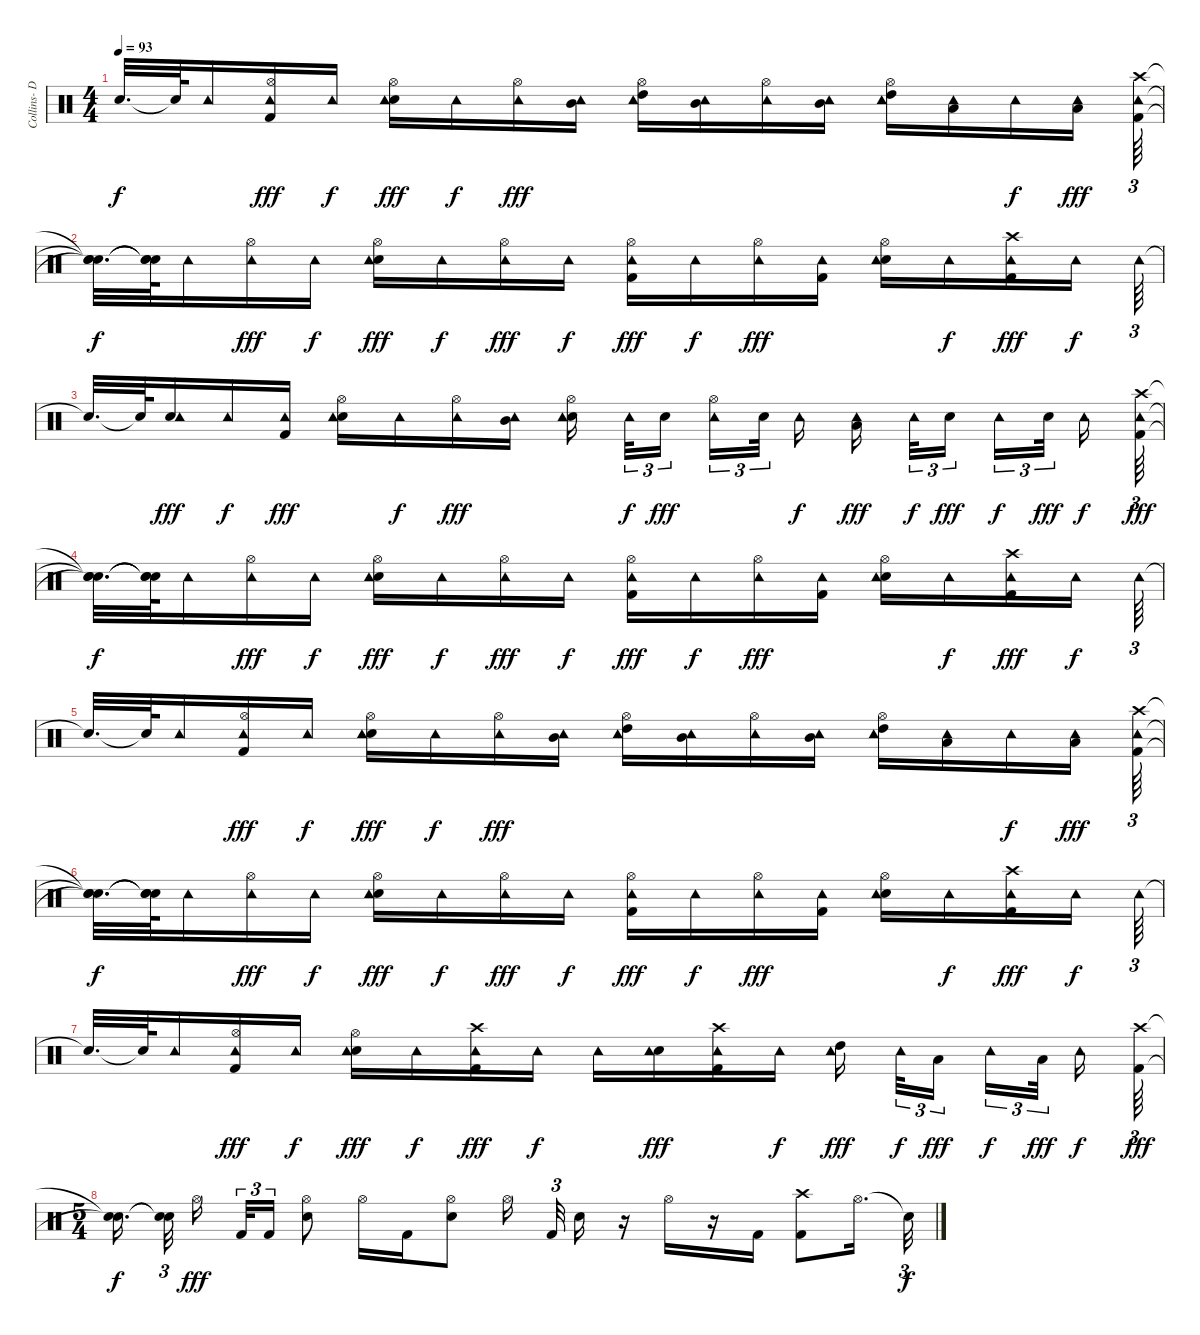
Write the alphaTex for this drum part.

\track ("Collins- Drums" "Collins- D") {instrument percussion}
\staff {score}
\articulation defaults
\ts (4 4)
\tempo 93
\clef neutral
\ks c "Snare (hit)"{t}.32{d dy f} "Snare (hit)"{t}.64 "Tambourine (hit)".16
("Hi-Hat (open)" "Kick (hit) 2" "Tambourine (hit)").16{dy fff} "Tambourine (hit)".16{dy f} ("Hi-Hat (open)" "Electric Snare (hit)" "Tambourine (hit)").16{dy fff} "Tambourine (hit)".16{dy f} ("Hi-Hat (open)" "Tambourine (hit)").16{dy fff} ("Mid Tom (hit)" "Tambourine (hit)").16 ("High Tom (hit)" "Hi-Hat (open)" "Tambourine (hit)").16 ("Mid Tom (hit)" "Tambourine (hit)").16 ("Hi-Hat (open)" "Tambourine (hit)").16 ("Mid Tom (hit)" "Tambourine (hit)").16 ("Hi-Hat (open)" "High Tom (hit)" "Tambourine (hit)").16 ("Low Tom (hit)" "Tambourine (hit)").16 "Tambourine (hit)".16{dy f} ("Low Tom (hit)" "Tambourine (hit)").16{dy fff} ("Crash high (hit)" "Kick (hit) 2" "Tambourine (hit)").64{tu (3 2)} |
("Snare (hit)"{t} "Snare (hit)"{t} "Snare (hit)"{t}).32{d dy f} ("Snare (hit)"{t} "Snare (hit)"{t} "Snare (hit)"{t}).64 "Tambourine (hit)".16 ("Hi-Hat (open)" "Tambourine (hit)").16{dy fff} "Tambourine (hit)".16{dy f} ("Hi-Hat (open)" "Electric Snare (hit)" "Tambourine (hit)").16{dy fff} "Tambourine (hit)".16{dy f} ("Hi-Hat (open)" "Tambourine (hit)").16{dy fff} "Tambourine (hit)".16{dy f} ("Hi-Hat (open)" "Kick (hit) 2" "Tambourine (hit)").16{dy fff} "Tambourine (hit)".16{dy f} ("Hi-Hat (open)" "Tambourine (hit)").16{dy fff} ("Kick (hit) 2" "Tambourine (hit)").16 ("Hi-Hat (open)" "Electric Snare (hit)" "Tambourine (hit)").16 "Tambourine (hit)".16{dy f} ("Kick (hit) 2" "Crash high (hit)" "Tambourine (hit)").16{dy fff} "Tambourine (hit)".16{dy f} "Tambourine (hit)".64{tu (3 2)} |
"Snare (hit)"{t}.32{d} "Snare (hit)"{t}.64 ("Electric Snare (hit)" "Tambourine (hit)").16{dy fff} "Tambourine (hit)".16{dy f} ("Kick (hit) 2" "Tambourine (hit)").16{dy fff} ("Hi-Hat (open)" "Electric Snare (hit)" "Tambourine (hit)").16 "Tambourine (hit)".16{dy f} ("Hi-Hat (open)" "Tambourine (hit)").16{dy fff} ("Mid Tom (hit)" "Tambourine (hit)").16 ("Electric Snare (hit)" "Hi-Hat (open)" "Tambourine (hit)").16{beam splitsecondary} "Tambourine (hit)".32{tu (3 2) dy f} "Electric Snare (hit)".16{tu (3 2) dy fff beam splitsecondary} ("Hi-Hat (open)" "Tambourine (hit)").16{tu (3 2)} "Electric Snare (hit)".32{tu (3 2) beam splitsecondary} "Tambourine (hit)".16{dy f} ("Low Tom (hit)" "Tambourine (hit)").16{dy fff beam splitsecondary} "Tambourine (hit)".32{tu (3 2) dy f} "Electric Snare (hit)".16{tu (3 2) dy fff beam splitsecondary} "Tambourine (hit)".16{tu (3 2) dy f} "Electric Snare (hit)".32{tu (3 2) dy fff beam splitsecondary} "Tambourine (hit)".16{dy f} ("Crash high (hit)" "Kick (hit) 2" "Tambourine (hit)").64{tu (3 2) dy fff} |
("Snare (hit)"{t} "Snare (hit)"{t} "Snare (hit)"{t}).32{d dy f} ("Snare (hit)"{t} "Snare (hit)"{t} "Snare (hit)"{t}).64 "Tambourine (hit)".16 ("Hi-Hat (open)" "Tambourine (hit)").16{dy fff} "Tambourine (hit)".16{dy f} ("Hi-Hat (open)" "Electric Snare (hit)" "Tambourine (hit)").16{dy fff} "Tambourine (hit)".16{dy f} ("Hi-Hat (open)" "Tambourine (hit)").16{dy fff} "Tambourine (hit)".16{dy f} ("Hi-Hat (open)" "Kick (hit) 2" "Tambourine (hit)").16{dy fff} "Tambourine (hit)".16{dy f} ("Hi-Hat (open)" "Tambourine (hit)").16{dy fff} ("Kick (hit) 2" "Tambourine (hit)").16 ("Hi-Hat (open)" "Electric Snare (hit)" "Tambourine (hit)").16 "Tambourine (hit)".16{dy f} ("Kick (hit) 2" "Crash high (hit)" "Tambourine (hit)").16{dy fff} "Tambourine (hit)".16{dy f} "Tambourine (hit)".64{tu (3 2)} |
"Snare (hit)"{t}.32{d} "Snare (hit)"{t}.64 "Tambourine (hit)".16 ("Hi-Hat (open)" "Kick (hit) 2" "Tambourine (hit)").16{dy fff} "Tambourine (hit)".16{dy f} ("Hi-Hat (open)" "Electric Snare (hit)" "Tambourine (hit)").16{dy fff} "Tambourine (hit)".16{dy f} ("Hi-Hat (open)" "Tambourine (hit)").16{dy fff} ("Mid Tom (hit)" "Tambourine (hit)").16 ("High Tom (hit)" "Hi-Hat (open)" "Tambourine (hit)").16 ("Mid Tom (hit)" "Tambourine (hit)").16 ("Hi-Hat (open)" "Tambourine (hit)").16 ("Mid Tom (hit)" "Tambourine (hit)").16 ("Hi-Hat (open)" "High Tom (hit)" "Tambourine (hit)").16 ("Low Tom (hit)" "Tambourine (hit)").16 "Tambourine (hit)".16{dy f} ("Low Tom (hit)" "Tambourine (hit)").16{dy fff} ("Crash high (hit)" "Kick (hit) 2" "Tambourine (hit)").64{tu (3 2)} |
("Snare (hit)"{t} "Snare (hit)"{t} "Snare (hit)"{t}).32{d dy f} ("Snare (hit)"{t} "Snare (hit)"{t} "Snare (hit)"{t}).64 "Tambourine (hit)".16 ("Hi-Hat (open)" "Tambourine (hit)").16{dy fff} "Tambourine (hit)".16{dy f} ("Hi-Hat (open)" "Electric Snare (hit)" "Tambourine (hit)").16{dy fff} "Tambourine (hit)".16{dy f} ("Hi-Hat (open)" "Tambourine (hit)").16{dy fff} "Tambourine (hit)".16{dy f} ("Hi-Hat (open)" "Kick (hit) 2" "Tambourine (hit)").16{dy fff} "Tambourine (hit)".16{dy f} ("Hi-Hat (open)" "Tambourine (hit)").16{dy fff} ("Kick (hit) 2" "Tambourine (hit)").16 ("Hi-Hat (open)" "Electric Snare (hit)" "Tambourine (hit)").16 "Tambourine (hit)".16{dy f} ("Kick (hit) 2" "Crash high (hit)" "Tambourine (hit)").16{dy fff} "Tambourine (hit)".16{dy f} "Tambourine (hit)".64{tu (3 2)} |
"Snare (hit)"{t}.32{d} "Snare (hit)"{t}.64 "Tambourine (hit)".16 ("Hi-Hat (open)" "Kick (hit) 2" "Tambourine (hit)").16{dy fff} "Tambourine (hit)".16{dy f} ("Hi-Hat (open)" "Electric Snare (hit)" "Tambourine (hit)").16{dy fff} "Tambourine (hit)".16{dy f} ("Kick (hit) 2" "Crash high (hit)" "Tambourine (hit)").16{dy fff} "Tambourine (hit)".16{dy f} "Tambourine (hit)".16 ("Electric Snare (hit)" "Tambourine (hit)").16{dy fff} ("Kick (hit) 2" "Crash high (hit)" "Tambourine (hit)").16 "Tambourine (hit)".16{dy f} ("High Tom (hit)" "Tambourine (hit)").16{dy fff beam splitsecondary} "Tambourine (hit)".32{tu (3 2) dy f} "Low Tom (hit)".16{tu (3 2) dy fff beam splitsecondary} "Tambourine (hit)".16{tu (3 2) dy f} "Low Tom (hit)".32{tu (3 2) dy fff beam splitsecondary} "Tambourine (hit)".16{dy f} ("Crash high (hit)" "Kick (hit) 2").64{tu (3 2) dy fff} |
\ts (5 4)
("Snare (hit)"{t} "Snare (hit)"{t}).16{d dy f beam splitsecondary} ("Snare (hit)"{t} "Snare (hit)"{t}).32{tu (3 2) beam splitsecondary} "Hi-Hat (open)".16{dy fff beam splitsecondary} "Kick (hit) 2".32{tu (3 2)} "Kick (hit) 2".16{tu (3 2)} ("Electric Snare (hit)" "Hi-Hat (open)").8 "Hi-Hat (open)".16 "Kick (hit) 2".16 ("Electric Snare (hit)" "Hi-Hat (open)").8 "Hi-Hat (open)".16{beam splitsecondary} "Kick (hit) 2".32{tu (3 2)} "Electric Snare (hit)".16 r.16 "Hi-Hat (open)".16 r.16 "Kick (hit) 2".16 ("Kick (hit) 2" "Crash high (hit)").8 "Hi-Hat (open)".16{d} "Snare (hit)"{t}.32{tu (3 2) dy f}
